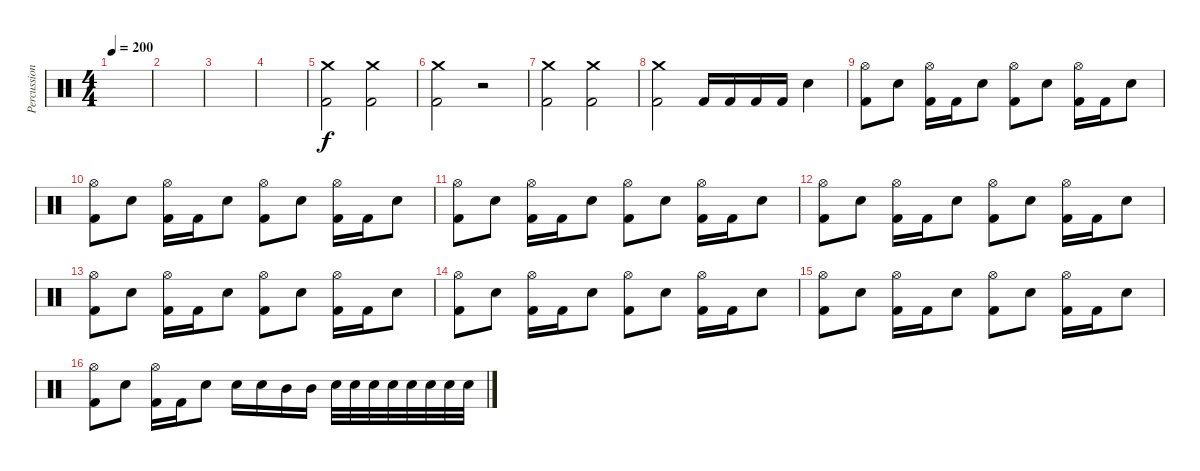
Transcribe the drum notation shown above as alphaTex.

\track ("Percussions" "Percussion") {instrument percussion}
\staff {score}
\articulation defaults
\ts (4 4)
\tempo 200
\clef neutral
\ks c
|
|
|
|
("Crash medium (hit)" "Kick (hit) 2").2 ("Crash medium (hit)" "Kick (hit) 2").2 |
("Crash medium (hit)" "Kick (hit) 2").2 r.2 |
("Crash medium (hit)" "Kick (hit) 2").2 ("Crash medium (hit)" "Kick (hit) 2").2 |
("Crash medium (hit)" "Kick (hit) 2").2 "Kick (hit) 2".16 "Kick (hit) 2".16 "Kick (hit) 2".16 "Kick (hit) 2".16 "Electric Snare (hit)".4 |
("Hi-Hat (open)" "Kick (hit) 2").8 "Electric Snare (hit)".8 ("Hi-Hat (open)" "Kick (hit) 2").16 "Kick (hit) 2".16 "Electric Snare (hit)".8 ("Hi-Hat (open)" "Kick (hit) 2").8 "Electric Snare (hit)".8 ("Hi-Hat (open)" "Kick (hit) 2").16 "Kick (hit) 2".16 "Electric Snare (hit)".8 |
("Hi-Hat (open)" "Kick (hit) 2").8 "Electric Snare (hit)".8 ("Hi-Hat (open)" "Kick (hit) 2").16 "Kick (hit) 2".16 "Electric Snare (hit)".8 ("Hi-Hat (open)" "Kick (hit) 2").8 "Electric Snare (hit)".8 ("Hi-Hat (open)" "Kick (hit) 2").16 "Kick (hit) 2".16 "Electric Snare (hit)".8 |
("Hi-Hat (open)" "Kick (hit) 2").8 "Electric Snare (hit)".8 ("Hi-Hat (open)" "Kick (hit) 2").16 "Kick (hit) 2".16 "Electric Snare (hit)".8 ("Hi-Hat (open)" "Kick (hit) 2").8 "Electric Snare (hit)".8 ("Hi-Hat (open)" "Kick (hit) 2").16 "Kick (hit) 2".16 "Electric Snare (hit)".8 |
("Hi-Hat (open)" "Kick (hit) 2").8 "Electric Snare (hit)".8 ("Hi-Hat (open)" "Kick (hit) 2").16 "Kick (hit) 2".16 "Electric Snare (hit)".8 ("Hi-Hat (open)" "Kick (hit) 2").8 "Electric Snare (hit)".8 ("Hi-Hat (open)" "Kick (hit) 2").16 "Kick (hit) 2".16 "Electric Snare (hit)".8 |
("Hi-Hat (open)" "Kick (hit) 2").8 "Electric Snare (hit)".8 ("Hi-Hat (open)" "Kick (hit) 2").16 "Kick (hit) 2".16 "Electric Snare (hit)".8 ("Hi-Hat (open)" "Kick (hit) 2").8 "Electric Snare (hit)".8 ("Hi-Hat (open)" "Kick (hit) 2").16 "Kick (hit) 2".16 "Electric Snare (hit)".8 |
("Hi-Hat (open)" "Kick (hit) 2").8 "Electric Snare (hit)".8 ("Hi-Hat (open)" "Kick (hit) 2").16 "Kick (hit) 2".16 "Electric Snare (hit)".8 ("Hi-Hat (open)" "Kick (hit) 2").8 "Electric Snare (hit)".8 ("Hi-Hat (open)" "Kick (hit) 2").16 "Kick (hit) 2".16 "Electric Snare (hit)".8 |
("Hi-Hat (open)" "Kick (hit) 2").8 "Electric Snare (hit)".8 ("Hi-Hat (open)" "Kick (hit) 2").16 "Kick (hit) 2".16 "Electric Snare (hit)".8 ("Hi-Hat (open)" "Kick (hit) 2").8 "Electric Snare (hit)".8 ("Hi-Hat (open)" "Kick (hit) 2").16 "Kick (hit) 2".16 "Electric Snare (hit)".8 |
("Hi-Hat (open)" "Kick (hit) 2").8 "Electric Snare (hit)".8 ("Hi-Hat (open)" "Kick (hit) 2").16 "Kick (hit) 2".16 "Electric Snare (hit)".8 "Electric Snare (hit)".16 "Electric Snare (hit)".16 "Mid Tom (hit)".16 "Mid Tom (hit)".16 "Electric Snare (hit)".32 "Electric Snare (hit)".32 "Electric Snare (hit)".32 "Electric Snare (hit)".32 "Electric Snare (hit)".32 "Electric Snare (hit)".32 "Electric Snare (hit)".32 "Electric Snare (hit)".32
